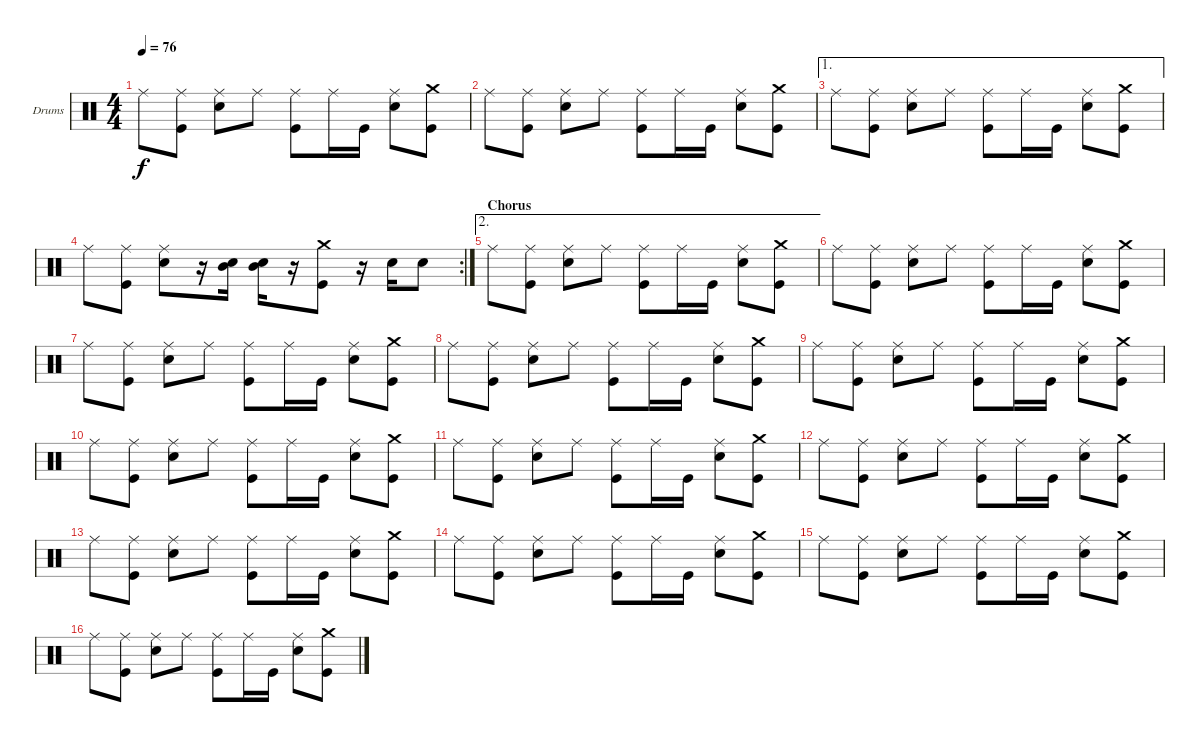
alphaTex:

\defaultSystemsLayout 4
\bracketExtendMode nobrackets
\firstSystemTrackNameOrientation horizontal
\otherSystemsTrackNameOrientation horizontal
\track ("Dave Krusen" "Drums") {instrument percussion}
\staff {score}
\articulation defaults
\ts (4 4)
\tempo 76
\clef neutral
\ks c "Ride (middle)".8{dy f}
("Kick (hit)" "Ride (middle)").8 ("Snare (hit) 2" "Ride (middle)").8 "Ride (middle)".8 ("Kick (hit)" "Ride (middle)").8 "Ride (middle)".16 "Kick (hit)".16 ("Snare (hit) 2" "Ride (middle)").8 ("Kick (hit)" "Crash medium (hit)").8 |
"Ride (middle)".8 ("Kick (hit)" "Ride (middle)").8 ("Snare (hit) 2" "Ride (middle)").8 "Ride (middle)".8 ("Kick (hit)" "Ride (middle)").8 "Ride (middle)".16 "Kick (hit)".16 ("Snare (hit) 2" "Ride (middle)").8 ("Kick (hit)" "Crash medium (hit)").8 |
\ae 1 "Ride (middle)".8
("Kick (hit)" "Ride (middle)").8 ("Snare (hit) 2" "Ride (middle)").8 "Ride (middle)".8 ("Kick (hit)" "Ride (middle)").8 "Ride (middle)".16 "Kick (hit)".16 ("Snare (hit) 2" "Ride (middle)").8 ("Kick (hit)" "Crash medium (hit)").8 |
\rc 2 "Ride (middle)".8
("Kick (hit)" "Ride (middle)").8 ("Snare (hit) 2" "Ride (middle)").8 r.16 ("Mid Tom (hit)" "Snare (hit) 2").16 ("Mid Tom (hit)" "Snare (hit) 2").16 r.16 ("Kick (hit)" "Crash medium (hit)").8 r.16 "Snare (hit) 2".16 "Snare (hit) 2".8 |
\ae 2
\section ("" "Chorus")
"Ride (middle)".8 ("Kick (hit)" "Ride (middle)").8 ("Snare (hit) 2" "Ride (middle)").8 "Ride (middle)".8 ("Kick (hit)" "Ride (middle)").8 "Ride (middle)".16 "Kick (hit)".16 ("Snare (hit) 2" "Ride (middle)").8 ("Kick (hit)" "Crash medium (hit)").8 |
"Ride (middle)".8 ("Kick (hit)" "Ride (middle)").8 ("Snare (hit) 2" "Ride (middle)").8 "Ride (middle)".8 ("Kick (hit)" "Ride (middle)").8 "Ride (middle)".16 "Kick (hit)".16 ("Snare (hit) 2" "Ride (middle)").8 ("Kick (hit)" "Crash medium (hit)").8 |
"Ride (middle)".8 ("Kick (hit)" "Ride (middle)").8 ("Snare (hit) 2" "Ride (middle)").8 "Ride (middle)".8 ("Kick (hit)" "Ride (middle)").8 "Ride (middle)".16 "Kick (hit)".16 ("Snare (hit) 2" "Ride (middle)").8 ("Kick (hit)" "Crash medium (hit)").8 |
"Ride (middle)".8 ("Kick (hit)" "Ride (middle)").8 ("Snare (hit) 2" "Ride (middle)").8 "Ride (middle)".8 ("Kick (hit)" "Ride (middle)").8 "Ride (middle)".16 "Kick (hit)".16 ("Snare (hit) 2" "Ride (middle)").8 ("Kick (hit)" "Crash medium (hit)").8 |
"Ride (middle)".8 ("Kick (hit)" "Ride (middle)").8 ("Snare (hit) 2" "Ride (middle)").8 "Ride (middle)".8 ("Kick (hit)" "Ride (middle)").8 "Ride (middle)".16 "Kick (hit)".16 ("Snare (hit) 2" "Ride (middle)").8 ("Kick (hit)" "Crash medium (hit)").8 |
"Ride (middle)".8 ("Kick (hit)" "Ride (middle)").8 ("Snare (hit) 2" "Ride (middle)").8 "Ride (middle)".8 ("Kick (hit)" "Ride (middle)").8 "Ride (middle)".16 "Kick (hit)".16 ("Snare (hit) 2" "Ride (middle)").8 ("Kick (hit)" "Crash medium (hit)").8 |
"Ride (middle)".8 ("Kick (hit)" "Ride (middle)").8 ("Snare (hit) 2" "Ride (middle)").8 "Ride (middle)".8 ("Kick (hit)" "Ride (middle)").8 "Ride (middle)".16 "Kick (hit)".16 ("Snare (hit) 2" "Ride (middle)").8 ("Kick (hit)" "Crash medium (hit)").8 |
"Ride (middle)".8 ("Kick (hit)" "Ride (middle)").8 ("Snare (hit) 2" "Ride (middle)").8 "Ride (middle)".8 ("Kick (hit)" "Ride (middle)").8 "Ride (middle)".16 "Kick (hit)".16 ("Snare (hit) 2" "Ride (middle)").8 ("Kick (hit)" "Crash medium (hit)").8 |
"Ride (middle)".8 ("Kick (hit)" "Ride (middle)").8 ("Snare (hit) 2" "Ride (middle)").8 "Ride (middle)".8 ("Kick (hit)" "Ride (middle)").8 "Ride (middle)".16 "Kick (hit)".16 ("Snare (hit) 2" "Ride (middle)").8 ("Kick (hit)" "Crash medium (hit)").8 |
"Ride (middle)".8 ("Kick (hit)" "Ride (middle)").8 ("Snare (hit) 2" "Ride (middle)").8 "Ride (middle)".8 ("Kick (hit)" "Ride (middle)").8 "Ride (middle)".16 "Kick (hit)".16 ("Snare (hit) 2" "Ride (middle)").8 ("Kick (hit)" "Crash medium (hit)").8 |
"Ride (middle)".8 ("Kick (hit)" "Ride (middle)").8 ("Snare (hit) 2" "Ride (middle)").8 "Ride (middle)".8 ("Kick (hit)" "Ride (middle)").8 "Ride (middle)".16 "Kick (hit)".16 ("Snare (hit) 2" "Ride (middle)").8 ("Kick (hit)" "Crash medium (hit)").8 |
"Ride (middle)".8 ("Kick (hit)" "Ride (middle)").8 ("Snare (hit) 2" "Ride (middle)").8 "Ride (middle)".8 ("Kick (hit)" "Ride (middle)").8 "Ride (middle)".16 "Kick (hit)".16 ("Snare (hit) 2" "Ride (middle)").8 ("Kick (hit)" "Crash medium (hit)").8
